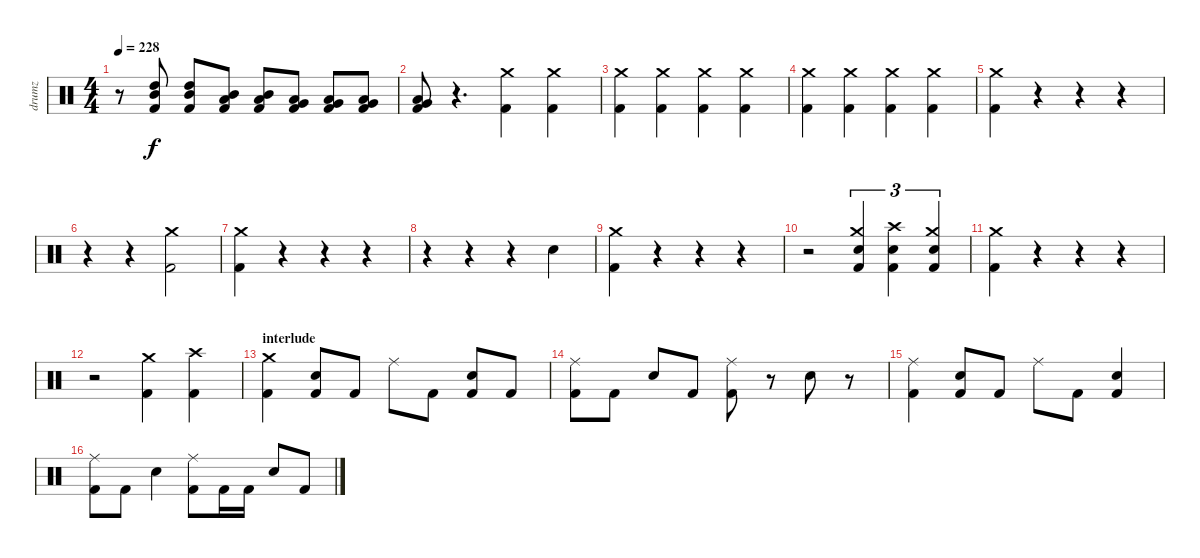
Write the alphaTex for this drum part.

\track ("drumz" "drumz") {instrument percussion}
\staff {score}
\articulation defaults
\ts (4 4)
\tempo 228
\clef neutral
\ks c
r.8{dy f} ("High Tom (hit)" "Mid Tom (hit)" "Kick (hit) 2").8 ("High Tom (hit)" "Mid Tom (hit)" "Kick (hit) 2").8 ("Mid Tom (hit)" "Low Tom (hit)" "Kick (hit) 2").8 ("Mid Tom (hit)" "Low Tom (hit)" "Kick (hit) 2").8 ("Low Tom (hit)" "Very Low Tom (hit)" "Kick (hit) 2").8 ("Low Tom (hit)" "Very Low Tom (hit)" "Kick (hit) 2").8 ("Very Low Tom (hit)" "Low Floor Tom (hit)" "Kick (hit) 2").8 |
("Very Low Tom (hit)" "Low Floor Tom (hit)" "Kick (hit) 2").8 r.4{d} ("Crash medium (hit)" "Kick (hit) 2").4 ("Crash medium (hit)" "Kick (hit) 2").4 |
("Crash medium (hit)" "Kick (hit) 2").4 ("Crash medium (hit)" "Kick (hit) 2").4 ("Crash medium (hit)" "Kick (hit) 2").4 ("Crash medium (hit)" "Kick (hit) 2").4 |
("Crash medium (hit)" "Kick (hit) 2").4 ("Crash medium (hit)" "Kick (hit) 2").4 ("Crash medium (hit)" "Kick (hit) 2").4 ("Crash medium (hit)" "Kick (hit) 2").4 |
("Crash medium (hit)" "Kick (hit) 2").4 r.4 r.4 r.4 |
r.4 r.4 ("Crash medium (hit)" "Kick (hit) 2").2 |
("Crash medium (hit)" "Kick (hit) 2").4 r.4 r.4 r.4 |
r.4 r.4 r.4 "Snare (hit) 2".4 |
("Crash medium (hit)" "Kick (hit) 2").4 r.4 r.4 r.4 |
r.2 ("Crash medium (hit)" "Snare (hit) 2" "Kick (hit) 2").4{tu (3 2)} ("Crash high (hit)" "Snare (hit) 2" "Kick (hit) 2").4{tu (3 2)} ("Crash medium (hit)" "Snare (hit) 2" "Kick (hit) 2").4{tu (3 2)} |
("Crash medium (hit)" "Kick (hit) 2").4 r.4 r.4 r.4 |
r.2 ("Crash medium (hit)" "Kick (hit) 2").4 ("Crash high (hit)" "Kick (hit) 2").4 |
\section ("" "interlude")
("Crash medium (hit)" "Kick (hit) 2").4 ("Snare (hit) 2" "Kick (hit) 2").8 "Kick (hit) 2".8 "Ride (middle)".8 "Kick (hit) 2".8 ("Snare (hit) 2" "Kick (hit) 2").8 "Kick (hit) 2".8 |
("Ride (middle)" "Kick (hit) 2").8 "Kick (hit) 2".8 "Snare (hit) 2".8 "Kick (hit) 2".8 ("Ride (middle)" "Kick (hit) 2").8 r.8 "Snare (hit) 2".8 r.8 |
("Ride (middle)" "Kick (hit) 2").4 ("Snare (hit) 2" "Kick (hit) 2").8 "Kick (hit) 2".8 "Ride (middle)".8 "Kick (hit) 2".8 ("Snare (hit) 2" "Kick (hit) 2").4 |
("Ride (middle)" "Kick (hit) 2").8 "Kick (hit) 2".8 "Snare (hit) 2".4 ("Ride (middle)" "Kick (hit) 2").8 "Kick (hit) 2".16 "Kick (hit) 2".16 "Snare (hit) 2".8 "Kick (hit) 2".8
